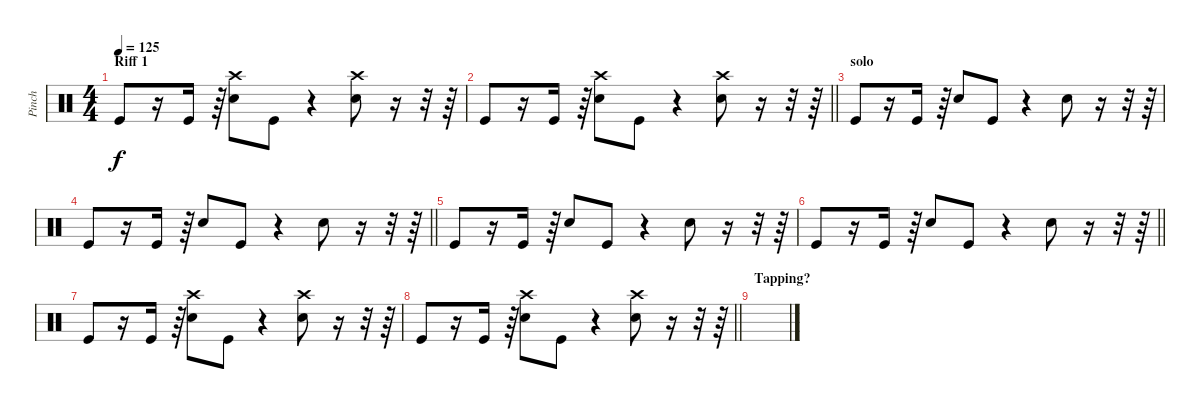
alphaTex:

\track ("Pinch" "Pinch") {instrument percussion}
\staff {score}
\articulation defaults
\ts (4 4)
\section ("" "Riff 1")
\tempo 125
\clef neutral
\ks c "Kick (hit)".8{dy f}
r.16 "Kick (hit)".16 r.64 ("Crash high (hit)" "Snare (hit) 2").8 "Kick (hit)".8 r.4 ("Crash high (hit)" "Snare (hit) 2").8 r.16 r.32 r.64 |
\barLineRight lightlight "Kick (hit)".8
r.16 "Kick (hit)".16 r.64 ("Crash high (hit)" "Snare (hit) 2").8 "Kick (hit)".8 r.4 ("Crash high (hit)" "Snare (hit) 2").8 r.16 r.32 r.64 |
\section ("" "solo")
"Kick (hit)".8 r.16 "Kick (hit)".16 r.64 "Snare (hit) 2".8 "Kick (hit)".8 r.4 "Snare (hit) 2".8 r.16 r.32 r.64 |
\barLineRight lightlight "Kick (hit)".8
r.16 "Kick (hit)".16 r.64 "Snare (hit) 2".8 "Kick (hit)".8 r.4 "Snare (hit) 2".8 r.16 r.32 r.64 |
"Kick (hit)".8 r.16 "Kick (hit)".16 r.64 "Snare (hit) 2".8 "Kick (hit)".8 r.4 "Snare (hit) 2".8 r.16 r.32 r.64 |
\barLineRight lightlight "Kick (hit)".8
r.16 "Kick (hit)".16 r.64 "Snare (hit) 2".8 "Kick (hit)".8 r.4 "Snare (hit) 2".8 r.16 r.32 r.64 |
"Kick (hit)".8 r.16 "Kick (hit)".16 r.64 ("Crash high (hit)" "Snare (hit) 2").8 "Kick (hit)".8 r.4 ("Crash high (hit)" "Snare (hit) 2").8 r.16 r.32 r.64 |
\barLineRight lightlight "Kick (hit)".8
r.16 "Kick (hit)".16 r.64 ("Crash high (hit)" "Snare (hit) 2").8 "Kick (hit)".8 r.4 ("Crash high (hit)" "Snare (hit) 2").8 r.16 r.32 r.64 |
\section ("" "Tapping?")
